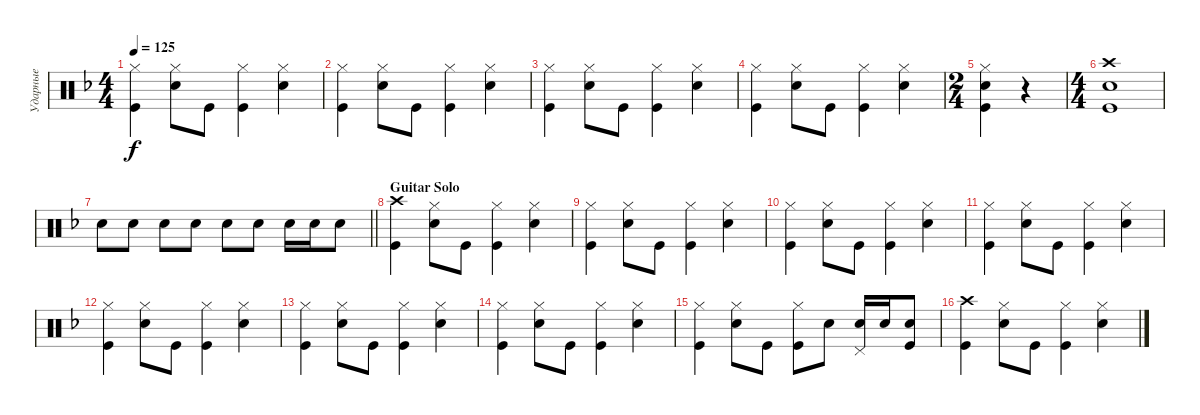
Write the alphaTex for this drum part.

\track ("Ударные" "Ударные") {instrument percussion}
\staff {score}
\articulation defaults
\ts (4 4)
\tempo 125
\clef neutral
\ks dminor
("Hi-Hat (closed)" "Kick (hit)").4{dy f} ("Hi-Hat (closed)" "Snare (hit) 2").8 "Kick (hit)".8 ("Hi-Hat (closed)" "Kick (hit)").4 ("Hi-Hat (closed)" "Snare (hit) 2").4 |
("Hi-Hat (closed)" "Kick (hit)").4 ("Hi-Hat (closed)" "Snare (hit) 2").8 "Kick (hit)".8 ("Hi-Hat (closed)" "Kick (hit)").4 ("Hi-Hat (closed)" "Snare (hit) 2").4 |
("Hi-Hat (closed)" "Kick (hit)").4 ("Hi-Hat (closed)" "Snare (hit) 2").8 "Kick (hit)".8 ("Hi-Hat (closed)" "Kick (hit)").4 ("Hi-Hat (closed)" "Snare (hit) 2").4 |
("Hi-Hat (closed)" "Kick (hit)").4 ("Hi-Hat (closed)" "Snare (hit) 2").8 "Kick (hit)".8 ("Hi-Hat (closed)" "Kick (hit)").4 ("Hi-Hat (closed)" "Snare (hit) 2").4 |
\ts (2 4)
("Snare (hit) 2" "Kick (hit)" "Hi-Hat (closed)").4 r.4 |
\ts (4 4)
("Kick (hit)" "Crash high (hit)" "Snare (hit) 2").1 |
\barLineRight lightlight "Snare (hit) 2".8 "Snare (hit) 2".8 "Snare (hit) 2".8 "Snare (hit) 2".8 "Snare (hit) 2".8 "Snare (hit) 2".8 "Snare (hit) 2".16 "Snare (hit) 2".16 "Snare (hit) 2".8
|
\section ("" "Guitar Solo")
("Crash high (hit)" "Kick (hit)").4 ("Hi-Hat (closed)" "Snare (hit) 2").8 "Kick (hit)".8 ("Hi-Hat (closed)" "Kick (hit)").4 ("Hi-Hat (closed)" "Snare (hit) 2").4 |
("Hi-Hat (closed)" "Kick (hit)").4 ("Hi-Hat (closed)" "Snare (hit) 2").8 "Kick (hit)".8 ("Hi-Hat (closed)" "Kick (hit)").4 ("Hi-Hat (closed)" "Snare (hit) 2").4 |
("Hi-Hat (closed)" "Kick (hit)").4 ("Hi-Hat (closed)" "Snare (hit) 2").8 "Kick (hit)".8 ("Hi-Hat (closed)" "Kick (hit)").4 ("Hi-Hat (closed)" "Snare (hit) 2").4 |
("Hi-Hat (closed)" "Kick (hit)").4 ("Hi-Hat (closed)" "Snare (hit) 2").8 "Kick (hit)".8 ("Hi-Hat (closed)" "Kick (hit)").4 ("Hi-Hat (closed)" "Snare (hit) 2").4 |
("Hi-Hat (closed)" "Kick (hit)").4 ("Hi-Hat (closed)" "Snare (hit) 2").8 "Kick (hit)".8 ("Hi-Hat (closed)" "Kick (hit)").4 ("Hi-Hat (closed)" "Snare (hit) 2").4 |
("Hi-Hat (closed)" "Kick (hit)").4 ("Hi-Hat (closed)" "Snare (hit) 2").8 "Kick (hit)".8 ("Hi-Hat (closed)" "Kick (hit)").4 ("Hi-Hat (closed)" "Snare (hit) 2").4 |
("Hi-Hat (closed)" "Kick (hit)").4 ("Hi-Hat (closed)" "Snare (hit) 2").8 "Kick (hit)".8 ("Hi-Hat (closed)" "Kick (hit)").4 ("Hi-Hat (closed)" "Snare (hit) 2").4 |
("Hi-Hat (closed)" "Kick (hit)").4 ("Hi-Hat (closed)" "Snare (hit) 2").8 "Kick (hit)".8 ("Hi-Hat (closed)" "Kick (hit)").8 "Snare (hit) 2".8 ("Snare (hit) 2" "Pedal Hi-Hat (hit)").16 "Snare (hit) 2".16 ("Snare (hit) 2" "Kick (hit)").8 |
("Crash high (hit)" "Kick (hit)").4 ("Hi-Hat (closed)" "Snare (hit) 2").8 "Kick (hit)".8 ("Hi-Hat (closed)" "Kick (hit)").4 ("Hi-Hat (closed)" "Snare (hit) 2").4
